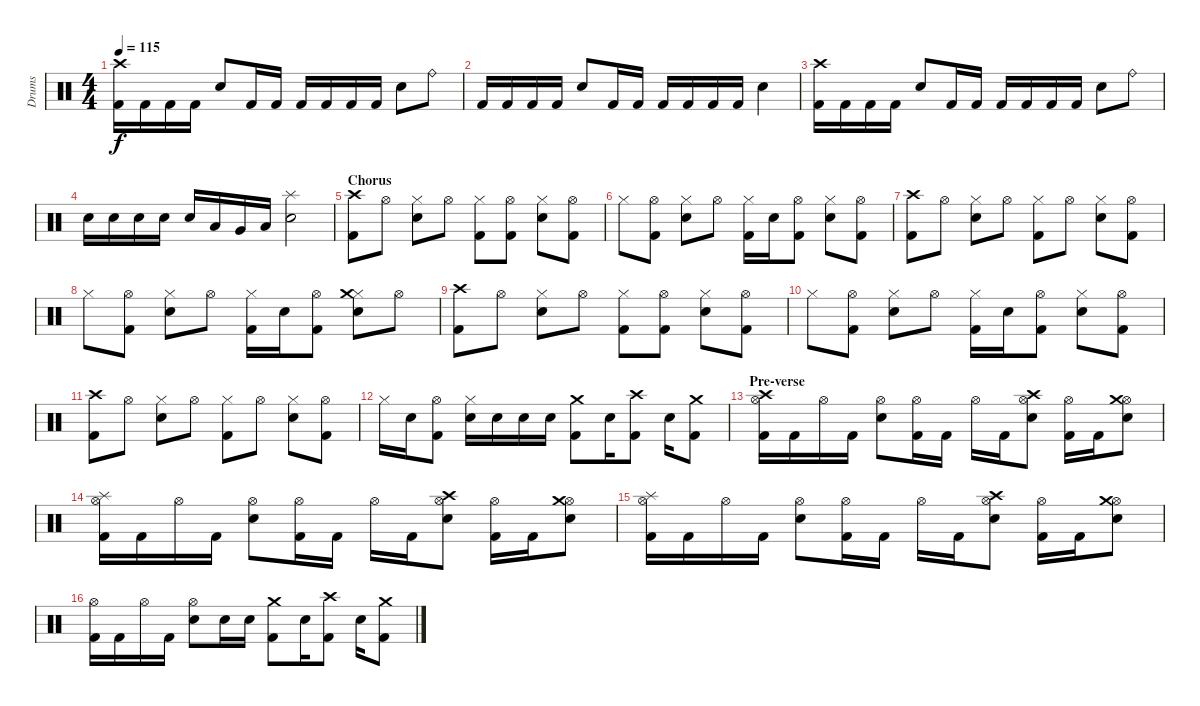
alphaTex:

\track ("Drums" "Drums") {instrument percussion}
\staff {score}
\articulation defaults
\ts (4 4)
\tempo 115
\clef neutral
\ks c
("Kick (hit) 2" "Crash high (hit)").16{dy f} "Kick (hit) 2".16 "Kick (hit) 2".16 "Kick (hit) 2".16 "Electric Snare (hit)".8 "Kick (hit) 2".16 "Kick (hit) 2".16 "Kick (hit) 2".16 "Kick (hit) 2".16 "Kick (hit) 2".16 "Kick (hit) 2".16 "Electric Snare (hit)".8 "Ride (bell)".8 |
"Kick (hit) 2".16 "Kick (hit) 2".16 "Kick (hit) 2".16 "Kick (hit) 2".16 "Electric Snare (hit)".8 "Kick (hit) 2".16 "Kick (hit) 2".16 "Kick (hit) 2".16 "Kick (hit) 2".16 "Kick (hit) 2".16 "Kick (hit) 2".16 "Electric Snare (hit)".4 |
("Kick (hit) 2" "Crash high (hit)").16 "Kick (hit) 2".16 "Kick (hit) 2".16 "Kick (hit) 2".16 "Electric Snare (hit)".8 "Kick (hit) 2".16 "Kick (hit) 2".16 "Kick (hit) 2".16 "Kick (hit) 2".16 "Kick (hit) 2".16 "Kick (hit) 2".16 "Electric Snare (hit)".8 "Ride (bell)".8 |
"Electric Snare (hit)".16 "Electric Snare (hit)".16 "Electric Snare (hit)".16 "Electric Snare (hit)".16 "Electric Snare (hit)".16 "Low Tom (hit)".16 "Very Low Tom (hit)".16 "Low Floor Tom (hit)".16 ("Electric Snare (hit)" "Splash (hit)").2 |
\section ("" "Chorus")
("Kick (hit) 2" "Crash high (hit)").8 "Hi-Hat (open)".8 ("Electric Snare (hit)" "Hi-Hat (closed)").8 "Hi-Hat (open)".8 ("Kick (hit) 2" "Hi-Hat (closed)").8 ("Kick (hit) 2" "Hi-Hat (open)").8 ("Electric Snare (hit)" "Hi-Hat (closed)").8 ("Kick (hit) 2" "Hi-Hat (open)").8 |
"Hi-Hat (closed)".8 ("Kick (hit) 2" "Hi-Hat (open)").8 ("Electric Snare (hit)" "Hi-Hat (closed)").8 "Hi-Hat (open)".8 ("Kick (hit) 2" "Hi-Hat (closed)").16 "Electric Snare (hit)".16 ("Kick (hit) 2" "Hi-Hat (open)").8 ("Electric Snare (hit)" "Hi-Hat (closed)").8 ("Kick (hit) 2" "Hi-Hat (open)").8 |
("Kick (hit) 2" "Crash high (hit)").8 "Hi-Hat (open)".8 ("Electric Snare (hit)" "Hi-Hat (closed)").8 "Hi-Hat (open)".8 ("Kick (hit) 2" "Hi-Hat (closed)").8 "Hi-Hat (open)".8 ("Electric Snare (hit)" "Hi-Hat (closed)").8 ("Kick (hit) 2" "Hi-Hat (open)").8 |
"Hi-Hat (closed)".8 ("Kick (hit) 2" "Hi-Hat (open)").8 ("Electric Snare (hit)" "Hi-Hat (closed)").8 "Hi-Hat (open)".8 ("Kick (hit) 2" "Hi-Hat (closed)").16 "Electric Snare (hit)".16 ("Kick (hit) 2" "Hi-Hat (open)").8 ("Electric Snare (hit)" "Hi-Hat (closed)" "Crash medium (hit)").8 "Hi-Hat (open)".8 |
("Kick (hit) 2" "Crash high (hit)").8 "Hi-Hat (open)".8 ("Electric Snare (hit)" "Hi-Hat (closed)").8 "Hi-Hat (open)".8 ("Kick (hit) 2" "Hi-Hat (closed)").8 ("Kick (hit) 2" "Hi-Hat (open)").8 ("Electric Snare (hit)" "Hi-Hat (closed)").8 ("Kick (hit) 2" "Hi-Hat (open)").8 |
"Hi-Hat (closed)".8 ("Kick (hit) 2" "Hi-Hat (open)").8 ("Electric Snare (hit)" "Hi-Hat (closed)").8 "Hi-Hat (open)".8 ("Kick (hit) 2" "Hi-Hat (closed)").16 "Electric Snare (hit)".16 ("Kick (hit) 2" "Hi-Hat (open)").8 ("Electric Snare (hit)" "Hi-Hat (closed)").8 ("Kick (hit) 2" "Hi-Hat (open)").8 |
("Kick (hit) 2" "Crash high (hit)").8 "Hi-Hat (open)".8 ("Electric Snare (hit)" "Hi-Hat (closed)").8 "Hi-Hat (open)".8 ("Kick (hit) 2" "Hi-Hat (closed)").8 "Hi-Hat (open)".8 ("Electric Snare (hit)" "Hi-Hat (closed)").8 ("Kick (hit) 2" "Hi-Hat (open)").8 |
"Hi-Hat (closed)".16 "Electric Snare (hit)".16 ("Kick (hit) 2" "Hi-Hat (open)").8 ("Electric Snare (hit)" "Hi-Hat (closed)").16 "Electric Snare (hit)".16 "Electric Snare (hit)".16 "Electric Snare (hit)".16 ("Kick (hit) 2" "Crash medium (hit)").8 "Electric Snare (hit)".16 ("Kick (hit) 2" "Crash high (hit)").8 "Electric Snare (hit)".16 ("Kick (hit) 2" "Crash medium (hit)").8 |
\section ("" "Pre-verse")
("Kick (hit) 2" "Hi-Hat (open)" "Crash high (hit)").16 "Kick (hit) 2".16 "Hi-Hat (open)".16 "Kick (hit) 2".16 ("Electric Snare (hit)" "Hi-Hat (open)").8 ("Kick (hit) 2" "Hi-Hat (open)").16 "Kick (hit) 2".16 "Hi-Hat (open)".16 "Kick (hit) 2".16 ("Electric Snare (hit)" "Hi-Hat (open)" "Crash high (hit)").8 ("Kick (hit) 2" "Hi-Hat (open)").16 "Kick (hit) 2".16 ("Electric Snare (hit)" "Hi-Hat (open)" "Crash medium (hit)").8 |
("Kick (hit) 2" "Hi-Hat (open)" "Splash (hit)").16 "Kick (hit) 2".16 "Hi-Hat (open)".16 "Kick (hit) 2".16 ("Electric Snare (hit)" "Hi-Hat (open)").8 ("Kick (hit) 2" "Hi-Hat (open)").16 "Kick (hit) 2".16 "Hi-Hat (open)".16 "Kick (hit) 2".16 ("Electric Snare (hit)" "Hi-Hat (open)" "Crash high (hit)").8 ("Kick (hit) 2" "Hi-Hat (open)").16 "Kick (hit) 2".16 ("Electric Snare (hit)" "Hi-Hat (open)" "Crash medium (hit)").8 |
("Kick (hit) 2" "Hi-Hat (open)" "Splash (hit)").16 "Kick (hit) 2".16 "Hi-Hat (open)".16 "Kick (hit) 2".16 ("Electric Snare (hit)" "Hi-Hat (open)").8 ("Kick (hit) 2" "Hi-Hat (open)").16 "Kick (hit) 2".16 "Hi-Hat (open)".16 "Kick (hit) 2".16 ("Electric Snare (hit)" "Hi-Hat (open)" "Crash high (hit)").8 ("Kick (hit) 2" "Hi-Hat (open)").16 "Kick (hit) 2".16 ("Electric Snare (hit)" "Hi-Hat (open)" "Crash medium (hit)").8 |
("Kick (hit) 2" "Hi-Hat (open)").16 "Kick (hit) 2".16 "Hi-Hat (open)".16 "Kick (hit) 2".16 ("Electric Snare (hit)" "Hi-Hat (open)").8 "Electric Snare (hit)".16 "Electric Snare (hit)".16 ("Kick (hit) 2" "Crash medium (hit)").8 "Electric Snare (hit)".16 ("Kick (hit) 2" "Crash high (hit)").8 "Electric Snare (hit)".16 ("Kick (hit) 2" "Crash medium (hit)").8
